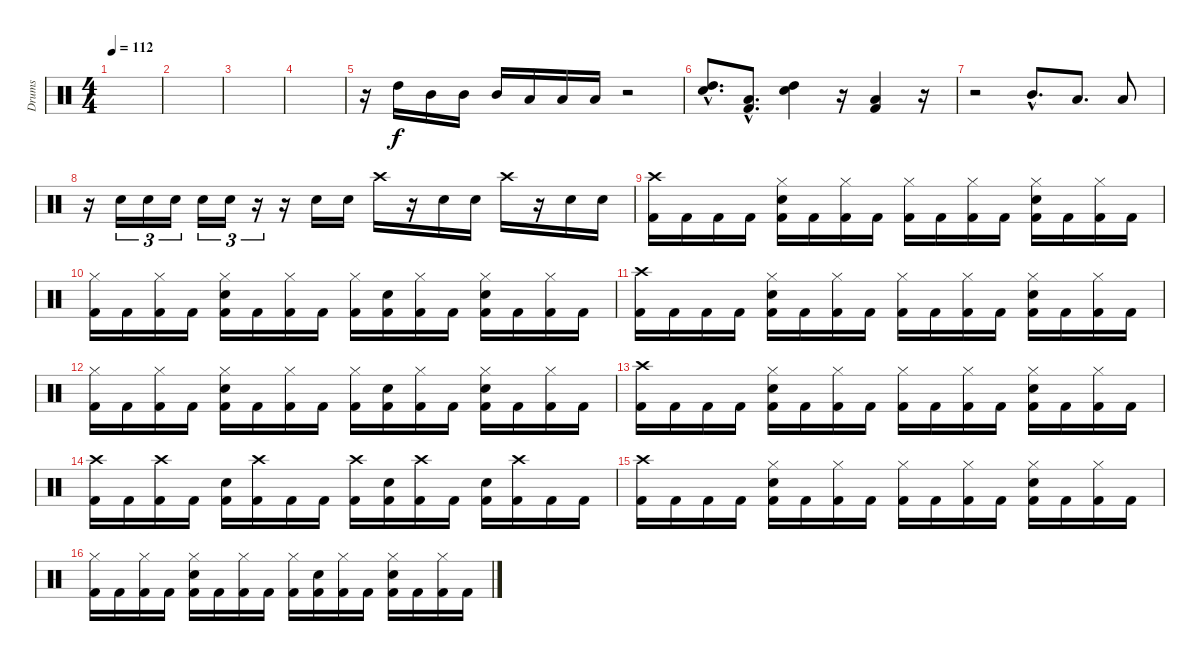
\track ("Drums" "Drums") {instrument percussion}
\staff {score}
\articulation defaults
\ts (4 4)
\tempo 112
\clef neutral
\ks c
|
|
|
|
r.16 "High Tom (hit)".16 "Mid Tom (hit)".16 "Mid Tom (hit)".16 "Mid Tom (hit)".16 "Low Tom (hit)".16 "Low Tom (hit)".16 "Low Floor Tom (hit)".16 r.2 |
("High Tom (hit)"{hac} "Snare (hit) 2"{hac}).8{d} ("Low Tom (hit)"{hac} "Kick (hit) 2"{hac}).8{d} ("High Tom (hit)" "Snare (hit) 2").4 r.16 ("Low Tom (hit)" "Kick (hit) 2").4 r.16 |
r.2 "Mid Tom (hit)"{hac}.8{d} "Low Tom (hit)".8{d} "Low Floor Tom (hit)".8 |
r.16 "Snare (hit) 2".16{tu (3 2)} "Snare (hit) 2".16{tu (3 2)} "Snare (hit) 2".16{tu (3 2)} "Snare (hit) 2".16{tu (3 2)} "Snare (hit) 2".16{tu (3 2)} r.16{tu (3 2)} r.16 "Snare (hit) 2".16 "Snare (hit) 2".16 "Crash high (hit)".16 r.16 "Snare (hit) 2".16 "Snare (hit) 2".16 "Crash high (hit)".16 r.16 "Snare (hit) 2".16 "Snare (hit) 2".16 |
("Crash high (hit)" "Kick (hit) 2").16 "Kick (hit) 2".16 "Kick (hit) 2".16 "Kick (hit) 2".16 ("Hi-Hat (closed)" "Snare (hit) 2" "Kick (hit) 2").16 "Kick (hit) 2".16 ("Hi-Hat (closed)" "Kick (hit) 2").16 "Kick (hit) 2".16 ("Hi-Hat (closed)" "Kick (hit) 2").16 "Kick (hit) 2".16 ("Hi-Hat (closed)" "Kick (hit) 2").16 "Kick (hit) 2".16 ("Hi-Hat (closed)" "Snare (hit) 2" "Kick (hit) 2").16 "Kick (hit) 2".16 ("Hi-Hat (closed)" "Kick (hit) 2").16 "Kick (hit) 2".16 |
("Hi-Hat (closed)" "Kick (hit) 2").16 "Kick (hit) 2".16 ("Hi-Hat (closed)" "Kick (hit) 2").16 "Kick (hit) 2".16 ("Hi-Hat (closed)" "Snare (hit) 2" "Kick (hit) 2").16 "Kick (hit) 2".16 ("Hi-Hat (closed)" "Kick (hit) 2").16 "Kick (hit) 2".16 ("Hi-Hat (closed)" "Kick (hit) 2").16 ("Snare (hit) 2" "Kick (hit) 2").16 ("Hi-Hat (closed)" "Kick (hit) 2").16 "Kick (hit) 2".16 ("Hi-Hat (closed)" "Snare (hit) 2" "Kick (hit) 2").16 "Kick (hit) 2".16 ("Hi-Hat (closed)" "Kick (hit) 2").16 "Kick (hit) 2".16 |
("Crash high (hit)" "Kick (hit) 2").16 "Kick (hit) 2".16 "Kick (hit) 2".16 "Kick (hit) 2".16 ("Hi-Hat (closed)" "Snare (hit) 2" "Kick (hit) 2").16 "Kick (hit) 2".16 ("Hi-Hat (closed)" "Kick (hit) 2").16 "Kick (hit) 2".16 ("Hi-Hat (closed)" "Kick (hit) 2").16 "Kick (hit) 2".16 ("Hi-Hat (closed)" "Kick (hit) 2").16 "Kick (hit) 2".16 ("Hi-Hat (closed)" "Snare (hit) 2" "Kick (hit) 2").16 "Kick (hit) 2".16 ("Hi-Hat (closed)" "Kick (hit) 2").16 "Kick (hit) 2".16 |
("Hi-Hat (closed)" "Kick (hit) 2").16 "Kick (hit) 2".16 ("Hi-Hat (closed)" "Kick (hit) 2").16 "Kick (hit) 2".16 ("Hi-Hat (closed)" "Snare (hit) 2" "Kick (hit) 2").16 "Kick (hit) 2".16 ("Hi-Hat (closed)" "Kick (hit) 2").16 "Kick (hit) 2".16 ("Hi-Hat (closed)" "Kick (hit) 2").16 ("Snare (hit) 2" "Kick (hit) 2").16 ("Hi-Hat (closed)" "Kick (hit) 2").16 "Kick (hit) 2".16 ("Hi-Hat (closed)" "Snare (hit) 2" "Kick (hit) 2").16 "Kick (hit) 2".16 ("Hi-Hat (closed)" "Kick (hit) 2").16 "Kick (hit) 2".16 |
("Crash high (hit)" "Kick (hit) 2").16 "Kick (hit) 2".16 "Kick (hit) 2".16 "Kick (hit) 2".16 ("Hi-Hat (closed)" "Snare (hit) 2" "Kick (hit) 2").16 "Kick (hit) 2".16 ("Hi-Hat (closed)" "Kick (hit) 2").16 "Kick (hit) 2".16 ("Hi-Hat (closed)" "Kick (hit) 2").16 "Kick (hit) 2".16 ("Hi-Hat (closed)" "Kick (hit) 2").16 "Kick (hit) 2".16 ("Hi-Hat (closed)" "Snare (hit) 2" "Kick (hit) 2").16 "Kick (hit) 2".16 ("Hi-Hat (closed)" "Kick (hit) 2").16 "Kick (hit) 2".16 |
("Crash high (hit)" "Kick (hit) 2").16 "Kick (hit) 2".16 ("Crash high (hit)" "Kick (hit) 2").16 "Kick (hit) 2".16 ("Snare (hit) 2" "Kick (hit) 2").16 ("Crash high (hit)" "Kick (hit) 2").16 "Kick (hit) 2".16 "Kick (hit) 2".16 ("Crash high (hit)" "Kick (hit) 2").16 ("Snare (hit) 2" "Kick (hit) 2").16 ("Crash high (hit)" "Kick (hit) 2").16 "Kick (hit) 2".16 ("Snare (hit) 2" "Kick (hit) 2").16 ("Crash high (hit)" "Kick (hit) 2").16 "Kick (hit) 2".16 "Kick (hit) 2".16 |
("Crash high (hit)" "Kick (hit) 2").16 "Kick (hit) 2".16 "Kick (hit) 2".16 "Kick (hit) 2".16 ("Hi-Hat (closed)" "Snare (hit) 2" "Kick (hit) 2").16 "Kick (hit) 2".16 ("Hi-Hat (closed)" "Kick (hit) 2").16 "Kick (hit) 2".16 ("Hi-Hat (closed)" "Kick (hit) 2").16 "Kick (hit) 2".16 ("Hi-Hat (closed)" "Kick (hit) 2").16 "Kick (hit) 2".16 ("Hi-Hat (closed)" "Snare (hit) 2" "Kick (hit) 2").16 "Kick (hit) 2".16 ("Hi-Hat (closed)" "Kick (hit) 2").16 "Kick (hit) 2".16 |
("Hi-Hat (closed)" "Kick (hit) 2").16 "Kick (hit) 2".16 ("Hi-Hat (closed)" "Kick (hit) 2").16 "Kick (hit) 2".16 ("Hi-Hat (closed)" "Snare (hit) 2" "Kick (hit) 2").16 "Kick (hit) 2".16 ("Hi-Hat (closed)" "Kick (hit) 2").16 "Kick (hit) 2".16 ("Hi-Hat (closed)" "Kick (hit) 2").16 ("Snare (hit) 2" "Kick (hit) 2").16 ("Hi-Hat (closed)" "Kick (hit) 2").16 "Kick (hit) 2".16 ("Hi-Hat (closed)" "Snare (hit) 2" "Kick (hit) 2").16 "Kick (hit) 2".16 ("Hi-Hat (closed)" "Kick (hit) 2").16 "Kick (hit) 2".16
